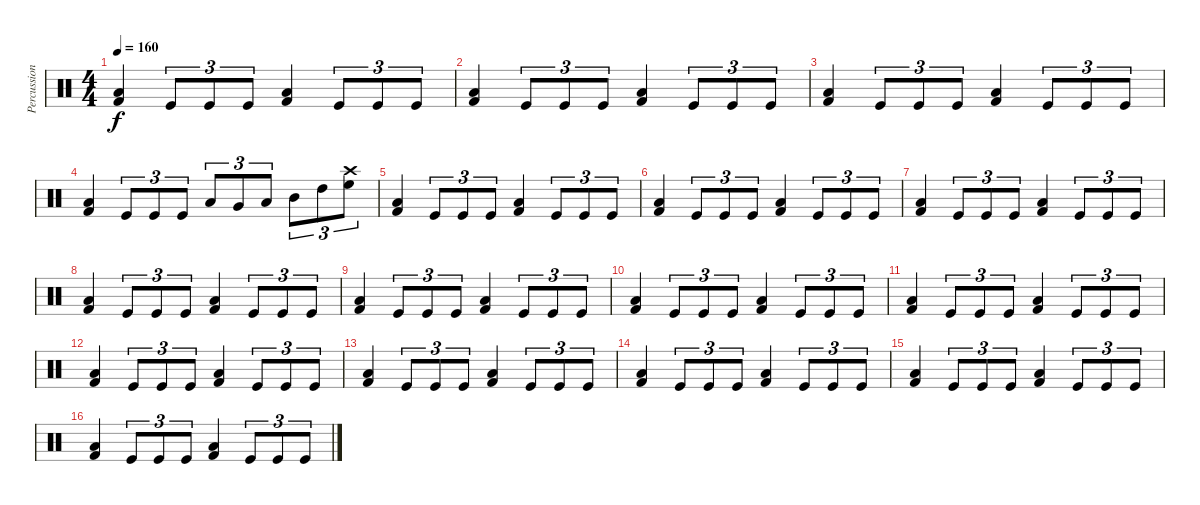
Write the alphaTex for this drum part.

\track ("Percussions" "Percussion") {instrument percussion}
\staff {score}
\articulation defaults
\ts (4 4)
\tempo 160
\clef neutral
\ks c
("Kick (hit) 2" "Low Floor Tom (hit)").4{dy f} "Kick (hit)".8{tu (3 2)} "Kick (hit)".8{tu (3 2)} "Kick (hit)".8{tu (3 2)} ("Kick (hit) 2" "Low Floor Tom (hit)").4 "Kick (hit)".8{tu (3 2)} "Kick (hit)".8{tu (3 2)} "Kick (hit)".8{tu (3 2)} |
("Kick (hit) 2" "Low Floor Tom (hit)").4 "Kick (hit)".8{tu (3 2)} "Kick (hit)".8{tu (3 2)} "Kick (hit)".8{tu (3 2)} ("Kick (hit) 2" "Low Floor Tom (hit)").4 "Kick (hit)".8{tu (3 2)} "Kick (hit)".8{tu (3 2)} "Kick (hit)".8{tu (3 2)} |
("Kick (hit) 2" "Low Floor Tom (hit)").4 "Kick (hit)".8{tu (3 2)} "Kick (hit)".8{tu (3 2)} "Kick (hit)".8{tu (3 2)} ("Kick (hit) 2" "Low Floor Tom (hit)").4 "Kick (hit)".8{tu (3 2)} "Kick (hit)".8{tu (3 2)} "Kick (hit)".8{tu (3 2)} |
("Kick (hit) 2" "Low Floor Tom (hit)").4 "Kick (hit)".8{tu (3 2)} "Kick (hit)".8{tu (3 2)} "Kick (hit)".8{tu (3 2)} "Low Floor Tom (hit)".8{tu (3 2)} "Very Low Tom (hit)".8{tu (3 2)} "Low Tom (hit)".8{tu (3 2)} "Mid Tom (hit)".8{tu (3 2)} "High Tom (hit)".8{tu (3 2)} ("High Floor Tom (hit)" "Crash high (hit)").8{tu (3 2)} |
("Kick (hit) 2" "Low Floor Tom (hit)").4 "Kick (hit)".8{tu (3 2)} "Kick (hit)".8{tu (3 2)} "Kick (hit)".8{tu (3 2)} ("Kick (hit) 2" "Low Floor Tom (hit)").4 "Kick (hit)".8{tu (3 2)} "Kick (hit)".8{tu (3 2)} "Kick (hit)".8{tu (3 2)} |
("Kick (hit) 2" "Low Floor Tom (hit)").4 "Kick (hit)".8{tu (3 2)} "Kick (hit)".8{tu (3 2)} "Kick (hit)".8{tu (3 2)} ("Kick (hit) 2" "Low Floor Tom (hit)").4 "Kick (hit)".8{tu (3 2)} "Kick (hit)".8{tu (3 2)} "Kick (hit)".8{tu (3 2)} |
("Kick (hit) 2" "Low Floor Tom (hit)").4 "Kick (hit)".8{tu (3 2)} "Kick (hit)".8{tu (3 2)} "Kick (hit)".8{tu (3 2)} ("Kick (hit) 2" "Low Floor Tom (hit)").4 "Kick (hit)".8{tu (3 2)} "Kick (hit)".8{tu (3 2)} "Kick (hit)".8{tu (3 2)} |
("Kick (hit) 2" "Low Floor Tom (hit)").4 "Kick (hit)".8{tu (3 2)} "Kick (hit)".8{tu (3 2)} "Kick (hit)".8{tu (3 2)} ("Kick (hit) 2" "Low Floor Tom (hit)").4 "Kick (hit)".8{tu (3 2)} "Kick (hit)".8{tu (3 2)} "Kick (hit)".8{tu (3 2)} |
("Kick (hit) 2" "Low Floor Tom (hit)").4 "Kick (hit)".8{tu (3 2)} "Kick (hit)".8{tu (3 2)} "Kick (hit)".8{tu (3 2)} ("Kick (hit) 2" "Low Floor Tom (hit)").4 "Kick (hit)".8{tu (3 2)} "Kick (hit)".8{tu (3 2)} "Kick (hit)".8{tu (3 2)} |
("Kick (hit) 2" "Low Floor Tom (hit)").4 "Kick (hit)".8{tu (3 2)} "Kick (hit)".8{tu (3 2)} "Kick (hit)".8{tu (3 2)} ("Kick (hit) 2" "Low Floor Tom (hit)").4 "Kick (hit)".8{tu (3 2)} "Kick (hit)".8{tu (3 2)} "Kick (hit)".8{tu (3 2)} |
("Kick (hit) 2" "Low Floor Tom (hit)").4 "Kick (hit)".8{tu (3 2)} "Kick (hit)".8{tu (3 2)} "Kick (hit)".8{tu (3 2)} ("Kick (hit) 2" "Low Floor Tom (hit)").4 "Kick (hit)".8{tu (3 2)} "Kick (hit)".8{tu (3 2)} "Kick (hit)".8{tu (3 2)} |
("Kick (hit) 2" "Low Floor Tom (hit)").4 "Kick (hit)".8{tu (3 2)} "Kick (hit)".8{tu (3 2)} "Kick (hit)".8{tu (3 2)} ("Kick (hit) 2" "Low Floor Tom (hit)").4 "Kick (hit)".8{tu (3 2)} "Kick (hit)".8{tu (3 2)} "Kick (hit)".8{tu (3 2)} |
("Kick (hit) 2" "Low Floor Tom (hit)").4 "Kick (hit)".8{tu (3 2)} "Kick (hit)".8{tu (3 2)} "Kick (hit)".8{tu (3 2)} ("Kick (hit) 2" "Low Floor Tom (hit)").4 "Kick (hit)".8{tu (3 2)} "Kick (hit)".8{tu (3 2)} "Kick (hit)".8{tu (3 2)} |
("Kick (hit) 2" "Low Floor Tom (hit)").4 "Kick (hit)".8{tu (3 2)} "Kick (hit)".8{tu (3 2)} "Kick (hit)".8{tu (3 2)} ("Kick (hit) 2" "Low Floor Tom (hit)").4 "Kick (hit)".8{tu (3 2)} "Kick (hit)".8{tu (3 2)} "Kick (hit)".8{tu (3 2)} |
("Kick (hit) 2" "Low Floor Tom (hit)").4 "Kick (hit)".8{tu (3 2)} "Kick (hit)".8{tu (3 2)} "Kick (hit)".8{tu (3 2)} ("Kick (hit) 2" "Low Floor Tom (hit)").4 "Kick (hit)".8{tu (3 2)} "Kick (hit)".8{tu (3 2)} "Kick (hit)".8{tu (3 2)} |
("Kick (hit) 2" "Low Floor Tom (hit)").4 "Kick (hit)".8{tu (3 2)} "Kick (hit)".8{tu (3 2)} "Kick (hit)".8{tu (3 2)} ("Kick (hit) 2" "Low Floor Tom (hit)").4 "Kick (hit)".8{tu (3 2)} "Kick (hit)".8{tu (3 2)} "Kick (hit)".8{tu (3 2)}
